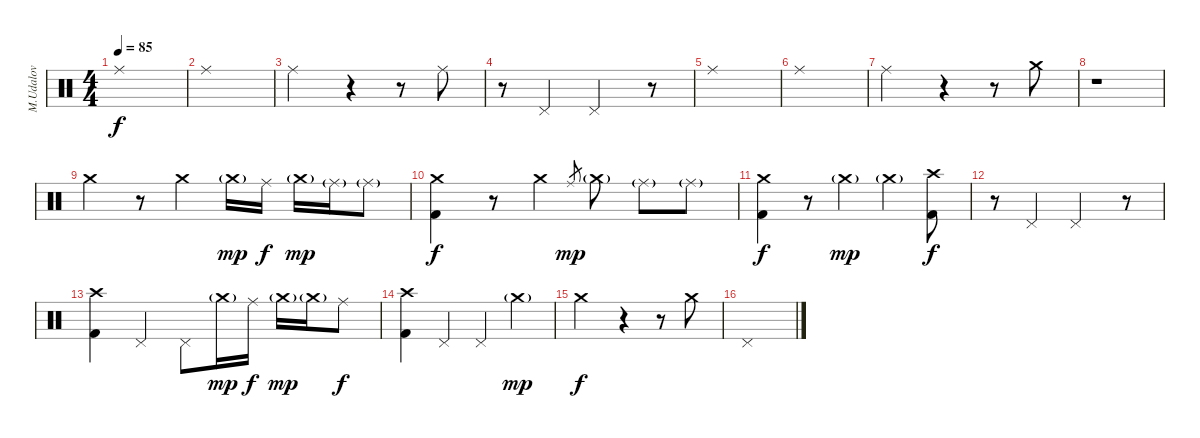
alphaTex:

\track ("M.Udalov" "M.Udalov") {instrument percussion}
\staff {score}
\articulation defaults
\ts (4 4)
\tempo 85
\clef neutral
\ks c "Ride (middle)".1{dy f}
|
"Ride (middle)".1 |
"Ride (middle)".2 r.4 r.8 "Ride (middle)".8 |
r.8 "Pedal Hi-Hat (hit)".4 "Pedal Hi-Hat (hit)".2 r.8 |
"Ride (middle)".1 |
"Ride (middle)".1 |
"Ride (middle)".2 r.4 r.8 "Crash medium (hit)".8 |
r.1 |
"Crash medium (hit)".4 r.8 "Crash medium (hit)".4 "Crash medium (hit)"{g}.16{dy mp} "Ride (middle)".16{dy f} "Crash medium (hit)"{g}.16{dy mp} "Ride (middle)"{g}.16 "Ride (middle)"{g}.8 |
("Crash medium (hit)" "Kick (hit) 2").4{dy f} r.8 "Crash medium (hit)".4 "Ride (middle)".8{gr dy mp} "Crash medium (hit)"{g}.8 "Ride (middle)"{g}.8 "Ride (middle)"{g}.8 |
("Crash medium (hit)" "Kick (hit) 2").4{dy f} r.8 "Crash medium (hit)"{g}.4{dy mp} "Crash medium (hit)"{g}.4 ("Crash high (hit)" "Kick (hit) 2").8{dy f} |
r.8 "Pedal Hi-Hat (hit)".4 "Pedal Hi-Hat (hit)".2 r.8 |
("Crash high (hit)" "Kick (hit) 2").4 "Pedal Hi-Hat (hit)".4 "Pedal Hi-Hat (hit)".8 "Crash medium (hit)"{g}.16{dy mp} "Ride (middle)".16{dy f} "Crash medium (hit)"{g}.16{dy mp} "Crash medium (hit)"{g}.16 "Ride (middle)".8{dy f} |
("Crash high (hit)" "Kick (hit) 2").4 "Pedal Hi-Hat (hit)".4 "Pedal Hi-Hat (hit)".4 "Crash medium (hit)"{g}.4{dy mp} |
"Crash medium (hit)".2{dy f} r.4 r.8 "Crash medium (hit)".8 |
"Pedal Hi-Hat (hit)".1
